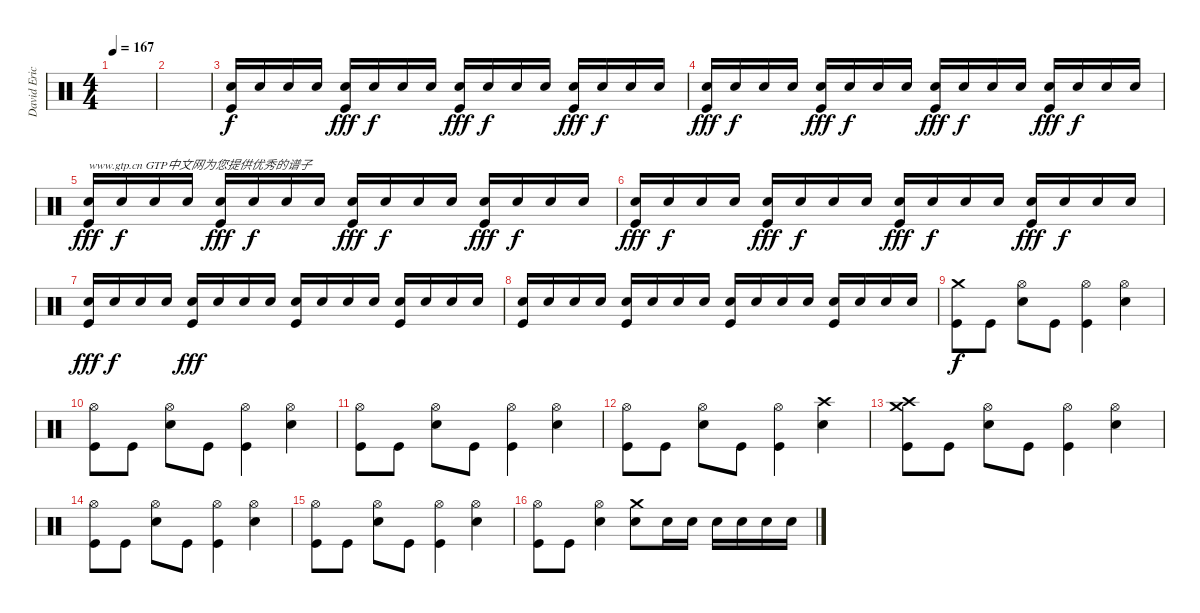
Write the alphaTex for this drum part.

\track ("David Eric Grohl" "David Eric") {instrument percussion}
\staff {score}
\articulation defaults
\ts (4 4)
\tempo 167
\clef neutral
\ks c
|
|
("Snare (hit) 2" "Kick (hit)").16 "Snare (hit) 2".16{dy f} "Snare (hit) 2".16 "Snare (hit) 2".16 ("Snare (hit) 2" "Kick (hit)").16{dy fff} "Snare (hit) 2".16{dy f} "Snare (hit) 2".16 "Snare (hit) 2".16 ("Snare (hit) 2" "Kick (hit)").16{dy fff} "Snare (hit) 2".16{dy f} "Snare (hit) 2".16 "Snare (hit) 2".16 ("Snare (hit) 2" "Kick (hit)").16{dy fff} "Snare (hit) 2".16{dy f} "Snare (hit) 2".16 "Snare (hit) 2".16 |
("Snare (hit) 2" "Kick (hit)").16{dy fff} "Snare (hit) 2".16{dy f} "Snare (hit) 2".16 "Snare (hit) 2".16 ("Snare (hit) 2" "Kick (hit)").16{dy fff} "Snare (hit) 2".16{dy f} "Snare (hit) 2".16 "Snare (hit) 2".16 ("Snare (hit) 2" "Kick (hit)").16{dy fff} "Snare (hit) 2".16{dy f} "Snare (hit) 2".16 "Snare (hit) 2".16 ("Snare (hit) 2" "Kick (hit)").16{dy fff} "Snare (hit) 2".16{dy f} "Snare (hit) 2".16 "Snare (hit) 2".16 |
("Snare (hit) 2" "Kick (hit)").16{txt "www.gtp.cn GTP中文网为您提供优秀的谱子" dy fff} "Snare (hit) 2".16{dy f} "Snare (hit) 2".16 "Snare (hit) 2".16 ("Snare (hit) 2" "Kick (hit)").16{dy fff} "Snare (hit) 2".16{dy f} "Snare (hit) 2".16 "Snare (hit) 2".16 ("Snare (hit) 2" "Kick (hit)").16{dy fff} "Snare (hit) 2".16{dy f} "Snare (hit) 2".16 "Snare (hit) 2".16 ("Snare (hit) 2" "Kick (hit)").16{dy fff} "Snare (hit) 2".16{dy f} "Snare (hit) 2".16 "Snare (hit) 2".16 |
("Snare (hit) 2" "Kick (hit)").16{dy fff} "Snare (hit) 2".16{dy f} "Snare (hit) 2".16 "Snare (hit) 2".16 ("Snare (hit) 2" "Kick (hit)").16{dy fff} "Snare (hit) 2".16{dy f} "Snare (hit) 2".16 "Snare (hit) 2".16 ("Snare (hit) 2" "Kick (hit)").16{dy fff} "Snare (hit) 2".16{dy f} "Snare (hit) 2".16 "Snare (hit) 2".16 ("Snare (hit) 2" "Kick (hit)").16{dy fff} "Snare (hit) 2".16{dy f} "Snare (hit) 2".16 "Snare (hit) 2".16 |
("Snare (hit) 2" "Kick (hit)").16{dy fff} "Snare (hit) 2".16{dy f} "Snare (hit) 2".16 "Snare (hit) 2".16 ("Snare (hit) 2" "Kick (hit)").16{dy fff} "Snare (hit) 2".16 "Snare (hit) 2".16 "Snare (hit) 2".16 ("Snare (hit) 2" "Kick (hit)").16 "Snare (hit) 2".16 "Snare (hit) 2".16 "Snare (hit) 2".16 ("Snare (hit) 2" "Kick (hit)").16 "Snare (hit) 2".16 "Snare (hit) 2".16 "Snare (hit) 2".16 |
("Snare (hit) 2" "Kick (hit)").16 "Snare (hit) 2".16 "Snare (hit) 2".16 "Snare (hit) 2".16 ("Snare (hit) 2" "Kick (hit)").16 "Snare (hit) 2".16 "Snare (hit) 2".16 "Snare (hit) 2".16 ("Snare (hit) 2" "Kick (hit)").16 "Snare (hit) 2".16 "Snare (hit) 2".16 "Snare (hit) 2".16 ("Snare (hit) 2" "Kick (hit)").16 "Snare (hit) 2".16 "Snare (hit) 2".16 "Snare (hit) 2".16 |
("Crash medium (hit)" "Kick (hit)").8{dy f} "Kick (hit)".8 ("Hi-Hat (open)" "Snare (hit) 2").8 "Kick (hit)".8 ("Hi-Hat (open)" "Kick (hit)").4 ("Hi-Hat (open)" "Snare (hit) 2").4 |
("Hi-Hat (open)" "Kick (hit)").8 "Kick (hit)".8 ("Hi-Hat (open)" "Snare (hit) 2").8 "Kick (hit)".8 ("Hi-Hat (open)" "Kick (hit)").4 ("Hi-Hat (open)" "Snare (hit) 2").4 |
("Hi-Hat (open)" "Kick (hit)").8 "Kick (hit)".8 ("Hi-Hat (open)" "Snare (hit) 2").8 "Kick (hit)".8 ("Hi-Hat (open)" "Kick (hit)").4 ("Hi-Hat (open)" "Snare (hit) 2").4 |
("Hi-Hat (open)" "Kick (hit)").8 "Kick (hit)".8 ("Hi-Hat (open)" "Snare (hit) 2").8 "Kick (hit)".8 ("Hi-Hat (open)" "Kick (hit)").4 ("Crash high (hit)" "Snare (hit) 2").4 |
("Crash high (hit)" "Crash medium (hit)" "Kick (hit)").8 "Kick (hit)".8 ("Hi-Hat (open)" "Snare (hit) 2").8 "Kick (hit)".8 ("Hi-Hat (open)" "Kick (hit)").4 ("Hi-Hat (open)" "Snare (hit) 2").4 |
("Hi-Hat (open)" "Kick (hit)").8 "Kick (hit)".8 ("Hi-Hat (open)" "Snare (hit) 2").8 "Kick (hit)".8 ("Hi-Hat (open)" "Kick (hit)").4 ("Hi-Hat (open)" "Snare (hit) 2").4 |
("Hi-Hat (open)" "Kick (hit)").8 "Kick (hit)".8 ("Hi-Hat (open)" "Snare (hit) 2").8 "Kick (hit)".8 ("Hi-Hat (open)" "Kick (hit)").4 ("Hi-Hat (open)" "Snare (hit) 2").4 |
("Hi-Hat (open)" "Kick (hit)").8 "Kick (hit)".8 ("Hi-Hat (open)" "Snare (hit) 2").4 ("Crash medium (hit)" "Snare (hit) 2").8 "Snare (hit) 2".16 "Snare (hit) 2".16 "Snare (hit) 2".16 "Snare (hit) 2".16 "Snare (hit) 2".16 "Snare (hit) 2".16
